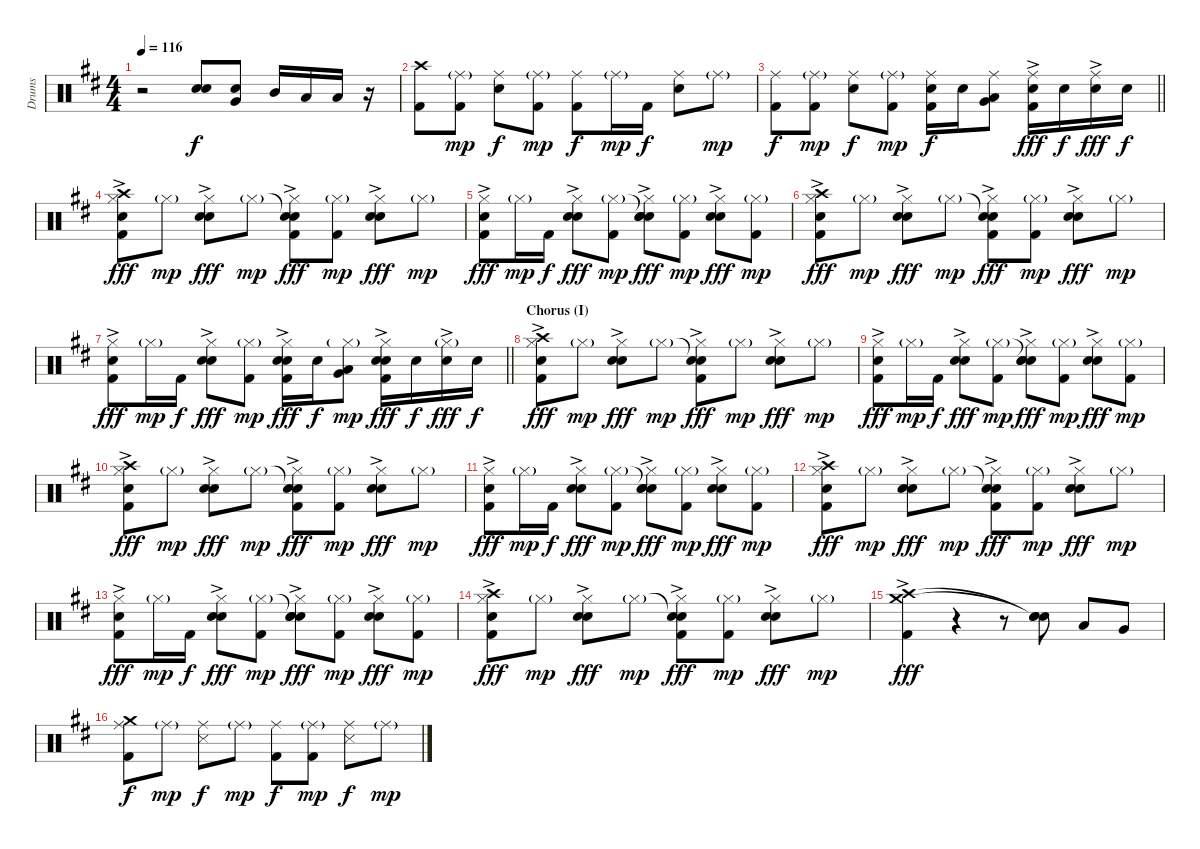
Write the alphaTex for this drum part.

\track ("Drums" "Drums") {instrument percussion}
\staff {score}
\articulation defaults
\ts (4 4)
\tempo 116
\clef neutral
\ks d
r.2{dy mp} ("Electric Snare (hit)" "Snare (hit) 2").8{dy f} ("Electric Snare (hit)" "Very Low Tom (hit)").8 "Mid Tom (hit)".16 "Low Tom (hit)".16 "Low Tom (hit)".16 r.16 |
("Crash high (hit)" "Kick (hit) 2").8 ("Ride (middle)"{g} "Kick (hit) 2").8{dy mp} ("Ride (middle)" "Snare (hit) 2").8{dy f} ("Ride (middle)"{g} "Kick (hit) 2").8{dy mp} ("Ride (middle)" "Kick (hit) 2").8{dy f} "Ride (middle)"{g}.16{dy mp} "Kick (hit) 2".16{dy f} ("Ride (middle)" "Snare (hit) 2").8 "Ride (middle)"{g}.8{dy mp} |
\barLineRight lightlight
("Ride (middle)" "Kick (hit) 2").8{dy f} ("Ride (middle)"{g} "Kick (hit) 2").8{dy mp} ("Ride (middle)" "Snare (hit) 2").8{dy f} ("Ride (middle)"{g} "Kick (hit) 2").8{dy mp} ("Ride (middle)" "Snare (hit) 2" "Kick (hit) 2").16{dy f} "Snare (hit) 2".16 ("Ride (middle)" "Low Tom (hit)" "Very Low Tom (hit)").8 ("Ride (middle)" "Snare (hit) 2"{ac} "Kick (hit) 2").16{dy fff} "Snare (hit) 2".16{dy f} ("Ride (middle)" "Snare (hit) 2"{ac}).16{dy fff} "Snare (hit) 2".16{dy f} |
("Crash high (hit)" "Hi-Hat (closed)" "Hand Clap (hit)"{ac} "Kick (hit) 2").8{dy fff} "Hi-Hat (closed)"{g}.8{dy mp} ("Hi-Hat (closed)" "Hand Clap (hit)"{ac} "Snare (hit) 2").8{dy fff} "Hi-Hat (closed)"{g}.8{dy mp} ("Snare (hit)"{t} "Hi-Hat (closed)" "Hand Clap (hit)"{ac} "Kick (hit) 2").8{dy fff} ("Hi-Hat (closed)"{g} "Kick (hit) 2").8{dy mp} ("Hi-Hat (closed)" "Hand Clap (hit)"{ac} "Snare (hit) 2").8{dy fff} "Hi-Hat (closed)"{g}.8{dy mp} |
("Hi-Hat (closed)" "Hand Clap (hit)"{ac} "Kick (hit) 2").8{dy fff} "Hi-Hat (closed)"{g}.16{dy mp} "Kick (hit) 2".16{dy f} ("Hi-Hat (closed)" "Hand Clap (hit)"{ac} "Snare (hit) 2").8{dy fff} ("Hi-Hat (closed)"{g} "Kick (hit) 2").8{dy mp} ("Snare (hit)"{t} "Hi-Hat (closed)" "Hand Clap (hit)"{ac} "Snare (hit) 2").8{dy fff} ("Hi-Hat (closed)"{g} "Kick (hit) 2").8{dy mp} ("Hi-Hat (closed)" "Hand Clap (hit)"{ac} "Snare (hit) 2").8{dy fff} ("Hi-Hat (closed)"{g} "Kick (hit) 2").8{dy mp} |
("Crash high (hit)" "Hi-Hat (closed)" "Hand Clap (hit)"{ac} "Kick (hit) 2").8{dy fff} "Hi-Hat (closed)"{g}.8{dy mp} ("Hi-Hat (closed)" "Hand Clap (hit)"{ac} "Snare (hit) 2").8{dy fff} "Hi-Hat (closed)"{g}.8{dy mp} ("Snare (hit)"{t} "Hi-Hat (closed)" "Hand Clap (hit)"{ac} "Kick (hit) 2").8{dy fff} ("Hi-Hat (closed)"{g} "Kick (hit) 2").8{dy mp} ("Hi-Hat (closed)" "Hand Clap (hit)"{ac} "Snare (hit) 2").8{dy fff} "Hi-Hat (closed)"{g}.8{dy mp} |
\barLineRight lightlight
("Hi-Hat (closed)" "Hand Clap (hit)"{ac} "Kick (hit) 2").8{dy fff} "Hi-Hat (closed)"{g}.16{dy mp} "Kick (hit) 2".16{dy f} ("Hi-Hat (closed)" "Hand Clap (hit)"{ac} "Snare (hit) 2").8{dy fff} ("Hi-Hat (closed)"{g} "Kick (hit) 2").8{dy mp} ("Hi-Hat (closed)" "Hand Clap (hit)"{ac} "Snare (hit) 2" "Kick (hit) 2").16{dy fff} "Snare (hit) 2".16{dy f} ("Hi-Hat (closed)"{g} "Low Tom (hit)" "Very Low Tom (hit)").8{dy mp} ("Hi-Hat (closed)" "Hand Clap (hit)"{ac} "Snare (hit) 2"{ac} "Kick (hit) 2").16{dy fff} "Snare (hit) 2".16{dy f} ("Hi-Hat (closed)"{g} "Snare (hit) 2"{ac}).16{dy fff} "Snare (hit) 2".16{dy f} |
\section ("" "Chorus (I)")
("Crash high (hit)" "Hi-Hat (closed)" "Hand Clap (hit)"{ac} "Kick (hit) 2").8{dy fff} "Hi-Hat (closed)"{g}.8{dy mp} ("Hi-Hat (closed)" "Hand Clap (hit)"{ac} "Snare (hit) 2").8{dy fff} "Hi-Hat (closed)"{g}.8{dy mp} ("Snare (hit)"{t} "Hi-Hat (closed)" "Hand Clap (hit)"{ac} "Kick (hit) 2").8{dy fff} "Hi-Hat (closed)"{g}.8{dy mp} ("Hi-Hat (closed)" "Hand Clap (hit)"{ac} "Snare (hit) 2").8{dy fff} "Hi-Hat (closed)"{g}.8{dy mp} |
("Hi-Hat (closed)" "Hand Clap (hit)"{ac} "Kick (hit) 2").8{dy fff} "Hi-Hat (closed)"{g}.16{dy mp} "Kick (hit) 2".16{dy f} ("Hi-Hat (closed)" "Hand Clap (hit)"{ac} "Snare (hit) 2").8{dy fff} ("Hi-Hat (closed)"{g} "Kick (hit) 2").8{dy mp} ("Snare (hit)"{t} "Hi-Hat (closed)" "Hand Clap (hit)"{ac} "Snare (hit) 2").8{dy fff} ("Hi-Hat (closed)"{g} "Kick (hit) 2").8{dy mp} ("Hi-Hat (closed)" "Hand Clap (hit)"{ac} "Snare (hit) 2").8{dy fff} ("Hi-Hat (closed)"{g} "Kick (hit) 2").8{dy mp} |
("Crash high (hit)" "Hi-Hat (closed)" "Hand Clap (hit)"{ac} "Kick (hit) 2").8{dy fff} "Hi-Hat (closed)"{g}.8{dy mp} ("Hi-Hat (closed)" "Hand Clap (hit)"{ac} "Snare (hit) 2").8{dy fff} "Hi-Hat (closed)"{g}.8{dy mp} ("Snare (hit)"{t} "Hi-Hat (closed)" "Hand Clap (hit)"{ac} "Kick (hit) 2").8{dy fff} ("Hi-Hat (closed)"{g} "Kick (hit) 2").8{dy mp} ("Hi-Hat (closed)" "Hand Clap (hit)"{ac} "Snare (hit) 2").8{dy fff} "Hi-Hat (closed)"{g}.8{dy mp} |
("Hi-Hat (closed)" "Hand Clap (hit)"{ac} "Kick (hit) 2").8{dy fff} "Hi-Hat (closed)"{g}.16{dy mp} "Kick (hit) 2".16{dy f} ("Hi-Hat (closed)" "Hand Clap (hit)"{ac} "Snare (hit) 2").8{dy fff} ("Hi-Hat (closed)"{g} "Kick (hit) 2").8{dy mp} ("Snare (hit)"{t} "Hi-Hat (closed)" "Hand Clap (hit)"{ac} "Snare (hit) 2").8{dy fff} ("Hi-Hat (closed)"{g} "Kick (hit) 2").8{dy mp} ("Hi-Hat (closed)" "Hand Clap (hit)"{ac} "Snare (hit) 2").8{dy fff} ("Hi-Hat (closed)"{g} "Kick (hit) 2").8{dy mp} |
("Crash high (hit)" "Hi-Hat (closed)" "Hand Clap (hit)"{ac} "Kick (hit) 2").8{dy fff} "Hi-Hat (closed)"{g}.8{dy mp} ("Hi-Hat (closed)" "Hand Clap (hit)"{ac} "Snare (hit) 2").8{dy fff} "Hi-Hat (closed)"{g}.8{dy mp} ("Snare (hit)"{t} "Hi-Hat (closed)" "Hand Clap (hit)"{ac} "Kick (hit) 2").8{dy fff} ("Hi-Hat (closed)"{g} "Kick (hit) 2").8{dy mp} ("Hi-Hat (closed)" "Hand Clap (hit)"{ac} "Snare (hit) 2").8{dy fff} "Hi-Hat (closed)"{g}.8{dy mp} |
("Hi-Hat (closed)" "Hand Clap (hit)"{ac} "Kick (hit) 2").8{dy fff} "Hi-Hat (closed)"{g}.16{dy mp} "Kick (hit) 2".16{dy f} ("Hi-Hat (closed)" "Hand Clap (hit)"{ac} "Snare (hit) 2").8{dy fff} ("Hi-Hat (closed)"{g} "Kick (hit) 2").8{dy mp} ("Snare (hit)"{t} "Hi-Hat (closed)" "Hand Clap (hit)"{ac} "Snare (hit) 2").8{dy fff} ("Hi-Hat (closed)"{g} "Kick (hit) 2").8{dy mp} ("Hi-Hat (closed)" "Hand Clap (hit)"{ac} "Snare (hit) 2").8{dy fff} ("Hi-Hat (closed)"{g} "Kick (hit) 2").8{dy mp} |
("Crash high (hit)" "Hi-Hat (closed)" "Hand Clap (hit)"{ac} "Kick (hit) 2").8{dy fff} "Hi-Hat (closed)"{g}.8{dy mp} ("Hi-Hat (closed)" "Hand Clap (hit)"{ac} "Snare (hit) 2").8{dy fff} "Hi-Hat (closed)"{g}.8{dy mp} ("Snare (hit)"{t} "Hi-Hat (closed)" "Hand Clap (hit)"{ac} "Kick (hit) 2").8{dy fff} ("Hi-Hat (closed)"{g} "Kick (hit) 2").8{dy mp} ("Hi-Hat (closed)" "Hand Clap (hit)"{ac} "Snare (hit) 2").8{dy fff} "Hi-Hat (closed)"{g}.8{dy mp} |
("Crash high (hit)"{ac} "Crash medium (hit)"{ac} "Kick (hit) 2").4{dy fff} r.4 r.8 ("Snare (hit)"{t} "Snare (hit)"{t} "Snare (hit) 2").8 "Low Tom (hit)".8 "Very Low Tom (hit)".8 |
("Crash medium (hit)" "Ride (middle)" "Kick (hit) 2").8{dy f} "Ride (middle)"{g}.8{dy mp} ("Ride (middle)" "Snare (side stick) 3").8{dy f} "Ride (middle)"{g}.8{dy mp} ("Ride (middle)" "Kick (hit) 2").8{dy f} ("Ride (middle)"{g} "Kick (hit) 2").8{dy mp} ("Ride (middle)" "Snare (side stick) 3").8{dy f} "Ride (middle)"{g}.8{dy mp}
